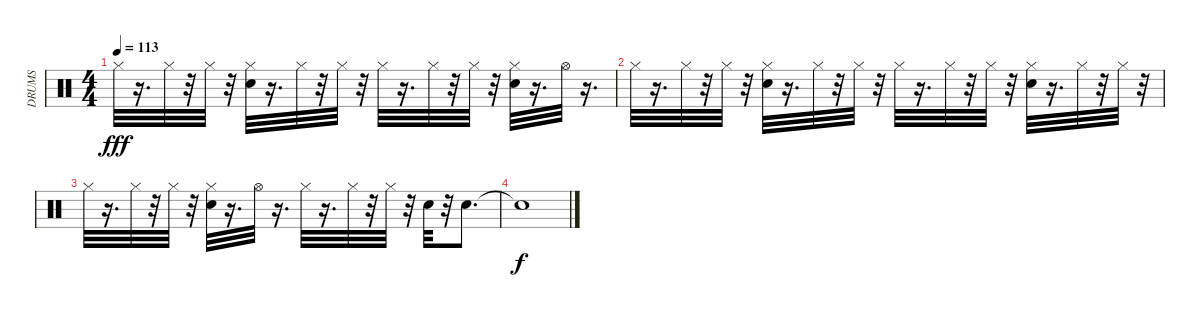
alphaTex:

\track ("DRUMS" "DRUMS") {instrument percussion}
\staff {score}
\articulation defaults
\ts (4 4)
\tempo 113
\clef neutral
\ks c "Hi-Hat (closed)".32{dy fff}
r.16{d} "Hi-Hat (closed)".32 r.32 "Hi-Hat (closed)".32 r.32 ("Hi-Hat (closed)" "Hand Clap (hit)").32 r.16{d} "Hi-Hat (closed)".32 r.32 "Hi-Hat (closed)".32 r.32 "Hi-Hat (closed)".32 r.16{d} "Hi-Hat (closed)".32 r.32 "Hi-Hat (closed)".32 r.32 ("Hi-Hat (closed)" "Hand Clap (hit)").32 r.16{d} "Hi-Hat (open)".32 r.16{d} |
"Hi-Hat (closed)".32 r.16{d} "Hi-Hat (closed)".32 r.32 "Hi-Hat (closed)".32 r.32 ("Hi-Hat (closed)" "Hand Clap (hit)").32 r.16{d} "Hi-Hat (closed)".32 r.32 "Hi-Hat (closed)".32 r.32 "Hi-Hat (closed)".32 r.16{d} "Hi-Hat (closed)".32 r.32 "Hi-Hat (closed)".32 r.32 ("Hi-Hat (closed)" "Hand Clap (hit)").32 r.16{d} "Hi-Hat (closed)".32 r.32 "Hi-Hat (closed)".32 r.32 |
"Hi-Hat (closed)".32 r.16{d} "Hi-Hat (closed)".32 r.32 "Hi-Hat (closed)".32 r.32 ("Hi-Hat (closed)" "Hand Clap (hit)").32 r.16{d} "Hi-Hat (open)".32 r.16{d} "Hi-Hat (closed)".32 r.16{d} "Hi-Hat (closed)".32 r.32 "Hi-Hat (closed)".32 r.32 "Hand Clap (hit)".32 r.32 "Hand Clap (hit)".8{d} |
"Snare (hit)"{t}.1{dy f}
